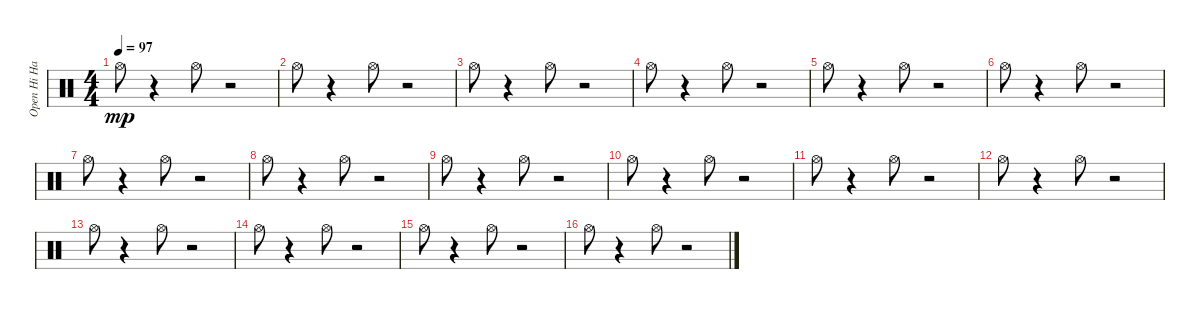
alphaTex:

\track ("Open Hi Hat" "Open Hi Ha") {instrument percussion}
\staff {score}
\articulation defaults
\ts (4 4)
\tempo 97
\clef neutral
\ks c "Hi-Hat (open)".8{dy mp}
r.4 "Hi-Hat (open)".8 r.2 |
"Hi-Hat (open)".8 r.4 "Hi-Hat (open)".8 r.2 |
"Hi-Hat (open)".8 r.4 "Hi-Hat (open)".8 r.2 |
"Hi-Hat (open)".8 r.4 "Hi-Hat (open)".8 r.2 |
"Hi-Hat (open)".8 r.4 "Hi-Hat (open)".8 r.2 |
"Hi-Hat (open)".8 r.4 "Hi-Hat (open)".8 r.2 |
"Hi-Hat (open)".8 r.4 "Hi-Hat (open)".8 r.2 |
"Hi-Hat (open)".8 r.4 "Hi-Hat (open)".8 r.2 |
"Hi-Hat (open)".8 r.4 "Hi-Hat (open)".8 r.2 |
"Hi-Hat (open)".8 r.4 "Hi-Hat (open)".8 r.2 |
"Hi-Hat (open)".8 r.4 "Hi-Hat (open)".8 r.2 |
"Hi-Hat (open)".8 r.4 "Hi-Hat (open)".8 r.2 |
"Hi-Hat (open)".8 r.4 "Hi-Hat (open)".8 r.2 |
"Hi-Hat (open)".8 r.4 "Hi-Hat (open)".8 r.2 |
"Hi-Hat (open)".8 r.4 "Hi-Hat (open)".8 r.2 |
"Hi-Hat (open)".8 r.4 "Hi-Hat (open)".8 r.2
